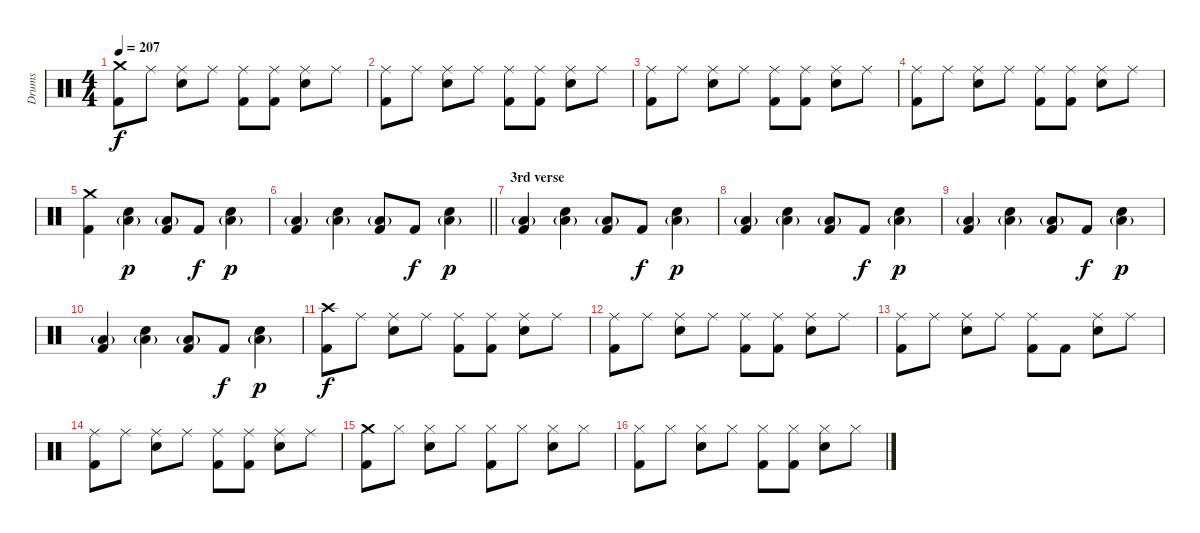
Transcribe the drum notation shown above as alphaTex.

\track ("Drums" "Drums") {instrument percussion}
\staff {score}
\articulation defaults
\ts (4 4)
\tempo 207
\clef neutral
\ks c
("Crash medium (hit)" "Kick (hit) 2").8{dy f} "Ride (middle)".8 ("Ride (middle)" "Electric Snare (hit)").8 "Ride (middle)".8 ("Ride (middle)" "Kick (hit) 2").8 ("Ride (middle)" "Kick (hit) 2").8 ("Ride (middle)" "Electric Snare (hit)").8 "Ride (middle)".8 |
("Ride (middle)" "Kick (hit) 2").8 "Ride (middle)".8 ("Ride (middle)" "Electric Snare (hit)").8 "Ride (middle)".8 ("Ride (middle)" "Kick (hit) 2").8 ("Ride (middle)" "Kick (hit) 2").8 ("Ride (middle)" "Electric Snare (hit)").8 "Ride (middle)".8 |
("Ride (middle)" "Kick (hit) 2").8 "Ride (middle)".8 ("Ride (middle)" "Electric Snare (hit)").8 "Ride (middle)".8 ("Ride (middle)" "Kick (hit) 2").8 ("Ride (middle)" "Kick (hit) 2").8 ("Ride (middle)" "Electric Snare (hit)").8 "Ride (middle)".8 |
("Ride (middle)" "Kick (hit) 2").8 "Ride (middle)".8 ("Ride (middle)" "Electric Snare (hit)").8 "Ride (middle)".8 ("Ride (middle)" "Kick (hit) 2").8 ("Ride (middle)" "Kick (hit) 2").8 ("Ride (middle)" "Electric Snare (hit)").8 "Ride (middle)".8 |
("Crash medium (hit)" "Kick (hit) 2").4 ("Low Floor Tom (hit)"{g} "Electric Snare (hit)").4{dy p} ("Low Floor Tom (hit)"{g} "Kick (hit) 2").8 "Kick (hit) 2".8{dy f} ("Low Floor Tom (hit)"{g} "Electric Snare (hit)").4{dy p} |
\barLineRight lightlight
("Low Floor Tom (hit)"{g} "Kick (hit) 2").4 ("Low Floor Tom (hit)"{g} "Electric Snare (hit)").4 ("Low Floor Tom (hit)"{g} "Kick (hit) 2").8 "Kick (hit) 2".8{dy f} ("Low Floor Tom (hit)"{g} "Electric Snare (hit)").4{dy p} |
\section ("" "3rd verse")
("Low Floor Tom (hit)"{g} "Kick (hit) 2").4 ("Low Floor Tom (hit)"{g} "Electric Snare (hit)").4 ("Low Floor Tom (hit)"{g} "Kick (hit) 2").8 "Kick (hit) 2".8{dy f} ("Low Floor Tom (hit)"{g} "Electric Snare (hit)").4{dy p} |
("Low Floor Tom (hit)"{g} "Kick (hit) 2").4 ("Low Floor Tom (hit)"{g} "Electric Snare (hit)").4 ("Low Floor Tom (hit)"{g} "Kick (hit) 2").8 "Kick (hit) 2".8{dy f} ("Low Floor Tom (hit)"{g} "Electric Snare (hit)").4{dy p} |
("Low Floor Tom (hit)"{g} "Kick (hit) 2").4 ("Low Floor Tom (hit)"{g} "Electric Snare (hit)").4 ("Low Floor Tom (hit)"{g} "Kick (hit) 2").8 "Kick (hit) 2".8{dy f} ("Low Floor Tom (hit)"{g} "Electric Snare (hit)").4{dy p} |
("Low Floor Tom (hit)"{g} "Kick (hit) 2").4 ("Low Floor Tom (hit)"{g} "Electric Snare (hit)").4 ("Low Floor Tom (hit)"{g} "Kick (hit) 2").8 "Kick (hit) 2".8{dy f} ("Low Floor Tom (hit)"{g} "Electric Snare (hit)").4{dy p} |
("Crash high (hit)" "Kick (hit) 2").8{dy f} "Ride (middle)".8 ("Ride (middle)" "Electric Snare (hit)").8 "Ride (middle)".8 ("Ride (middle)" "Kick (hit) 2").8 ("Ride (middle)" "Kick (hit) 2").8 ("Ride (middle)" "Electric Snare (hit)").8 "Ride (middle)".8 |
("Ride (middle)" "Kick (hit) 2").8 "Ride (middle)".8 ("Ride (middle)" "Electric Snare (hit)").8 "Ride (middle)".8 ("Ride (middle)" "Kick (hit) 2").8 ("Ride (middle)" "Kick (hit) 2").8 ("Ride (middle)" "Electric Snare (hit)").8 "Ride (middle)".8 |
("Ride (middle)" "Kick (hit) 2").8 "Ride (middle)".8 ("Ride (middle)" "Electric Snare (hit)").8 "Ride (middle)".8 ("Ride (middle)" "Kick (hit) 2").8 "Kick (hit) 2".8 ("Ride (middle)" "Electric Snare (hit)").8 "Ride (middle)".8 |
("Ride (middle)" "Kick (hit) 2").8 "Ride (middle)".8 ("Ride (middle)" "Electric Snare (hit)").8 "Ride (middle)".8 ("Ride (middle)" "Kick (hit) 2").8 ("Ride (middle)" "Kick (hit) 2").8 ("Ride (middle)" "Electric Snare (hit)").8 "Ride (middle)".8 |
("Crash medium (hit)" "Kick (hit) 2").8 "Hi-Hat (closed)".8 ("Hi-Hat (closed)" "Electric Snare (hit)").8 "Hi-Hat (closed)".8 ("Hi-Hat (closed)" "Kick (hit) 2").8 "Hi-Hat (closed)".8 ("Hi-Hat (closed)" "Electric Snare (hit)").8 "Hi-Hat (closed)".8 |
("Hi-Hat (closed)" "Kick (hit) 2").8 "Hi-Hat (closed)".8 ("Hi-Hat (closed)" "Electric Snare (hit)").8 "Hi-Hat (closed)".8 ("Hi-Hat (closed)" "Kick (hit) 2").8 ("Hi-Hat (closed)" "Kick (hit) 2").8 ("Hi-Hat (closed)" "Electric Snare (hit)").8 "Hi-Hat (closed)".8
